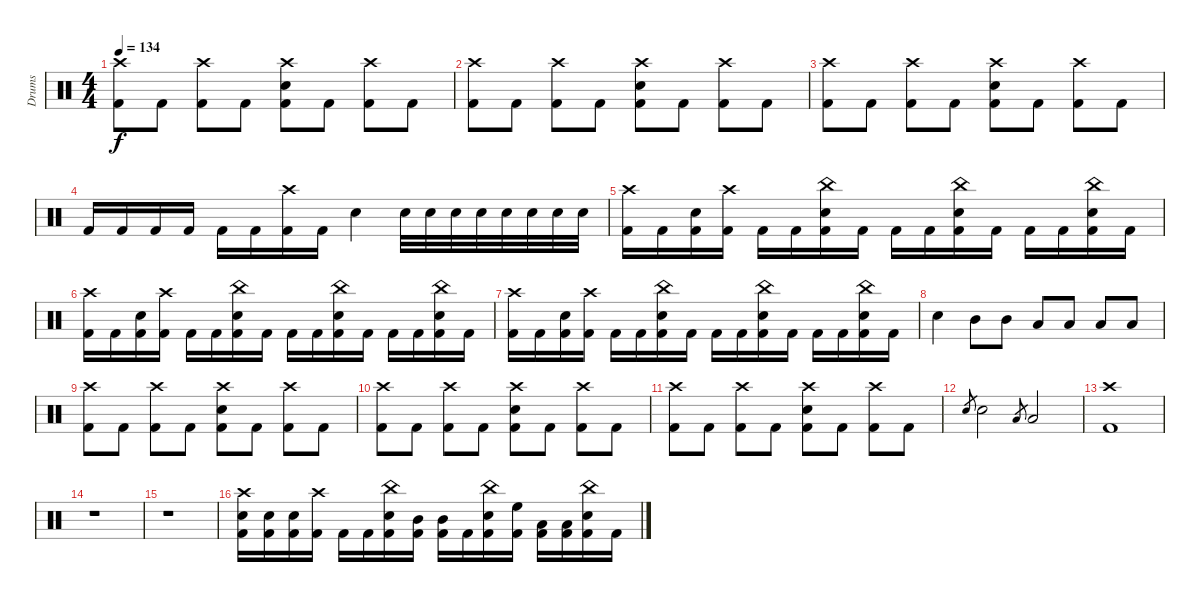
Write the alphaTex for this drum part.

\track ("Drums" "Drums") {instrument percussion}
\staff {score}
\articulation defaults
\ts (4 4)
\tempo 134
\clef neutral
\ks c
("Crash high (hit)" "Kick (hit) 2").8{dy f} "Kick (hit) 2".8 ("Crash high (hit)" "Kick (hit) 2").8 "Kick (hit) 2".8 ("Crash high (hit)" "Electric Snare (hit)" "Kick (hit) 2").8 "Kick (hit) 2".8 ("Crash high (hit)" "Kick (hit) 2").8 "Kick (hit) 2".8 |
("Crash high (hit)" "Kick (hit) 2").8 "Kick (hit) 2".8 ("Crash high (hit)" "Kick (hit) 2").8 "Kick (hit) 2".8 ("Crash high (hit)" "Electric Snare (hit)" "Kick (hit) 2").8 "Kick (hit) 2".8 ("Crash high (hit)" "Kick (hit) 2").8 "Kick (hit) 2".8 |
("Crash high (hit)" "Kick (hit) 2").8 "Kick (hit) 2".8 ("Crash high (hit)" "Kick (hit) 2").8 "Kick (hit) 2".8 ("Crash high (hit)" "Electric Snare (hit)" "Kick (hit) 2").8 "Kick (hit) 2".8 ("Crash high (hit)" "Kick (hit) 2").8 "Kick (hit) 2".8 |
"Kick (hit) 2".16 "Kick (hit) 2".16 "Kick (hit) 2".16 "Kick (hit) 2".16 "Kick (hit) 2".16 "Kick (hit) 2".16 ("Crash high (hit)" "Kick (hit) 2").16 "Kick (hit) 2".16 "Electric Snare (hit)".4 "Electric Snare (hit)".32 "Electric Snare (hit)".32 "Electric Snare (hit)".32 "Electric Snare (hit)".32 "Electric Snare (hit)".32 "Electric Snare (hit)".32 "Electric Snare (hit)".32 "Electric Snare (hit)".32 |
("Crash high (hit)" "Kick (hit) 2").16 "Kick (hit) 2".16 ("Electric Snare (hit)" "Kick (hit) 2").16 ("Crash high (hit)" "Kick (hit) 2").16 "Kick (hit) 2".16 "Kick (hit) 2".16 ("China (hit)" "Electric Snare (hit)" "Kick (hit) 2").16 "Kick (hit) 2".16 "Kick (hit) 2".16 "Kick (hit) 2".16 ("China (hit)" "Electric Snare (hit)" "Kick (hit) 2").16 "Kick (hit) 2".16 "Kick (hit) 2".16 "Kick (hit) 2".16 ("China (hit)" "Electric Snare (hit)" "Kick (hit) 2").16 "Kick (hit) 2".16 |
("Crash high (hit)" "Kick (hit) 2").16 "Kick (hit) 2".16 ("Electric Snare (hit)" "Kick (hit) 2").16 ("Crash high (hit)" "Kick (hit) 2").16 "Kick (hit) 2".16 "Kick (hit) 2".16 ("China (hit)" "Electric Snare (hit)" "Kick (hit) 2").16 "Kick (hit) 2".16 "Kick (hit) 2".16 "Kick (hit) 2".16 ("China (hit)" "Electric Snare (hit)" "Kick (hit) 2").16 "Kick (hit) 2".16 "Kick (hit) 2".16 "Kick (hit) 2".16 ("China (hit)" "Electric Snare (hit)" "Kick (hit) 2").16 "Kick (hit) 2".16 |
("Crash high (hit)" "Kick (hit) 2").16 "Kick (hit) 2".16 ("Electric Snare (hit)" "Kick (hit) 2").16 ("Crash high (hit)" "Kick (hit) 2").16 "Kick (hit) 2".16 "Kick (hit) 2".16 ("China (hit)" "Electric Snare (hit)" "Kick (hit) 2").16 "Kick (hit) 2".16 "Kick (hit) 2".16 "Kick (hit) 2".16 ("China (hit)" "Electric Snare (hit)" "Kick (hit) 2").16 "Kick (hit) 2".16 "Kick (hit) 2".16 "Kick (hit) 2".16 ("China (hit)" "Electric Snare (hit)" "Kick (hit) 2").16 "Kick (hit) 2".16 |
"Electric Snare (hit)".4 "Mid Tom (hit)".8 "Mid Tom (hit)".8 "Low Tom (hit)".8 "Low Tom (hit)".8 "Low Floor Tom (hit)".8 "Low Floor Tom (hit)".8 |
("Crash high (hit)" "Kick (hit) 2").8 "Kick (hit) 2".8 ("Crash high (hit)" "Kick (hit) 2").8 "Kick (hit) 2".8 ("Crash high (hit)" "Electric Snare (hit)" "Kick (hit) 2").8 "Kick (hit) 2".8 ("Crash high (hit)" "Kick (hit) 2").8 "Kick (hit) 2".8 |
("Crash high (hit)" "Kick (hit) 2").8 "Kick (hit) 2".8 ("Crash high (hit)" "Kick (hit) 2").8 "Kick (hit) 2".8 ("Crash high (hit)" "Electric Snare (hit)" "Kick (hit) 2").8 "Kick (hit) 2".8 ("Crash high (hit)" "Kick (hit) 2").8 "Kick (hit) 2".8 |
("Crash high (hit)" "Kick (hit) 2").8 "Kick (hit) 2".8 ("Crash high (hit)" "Kick (hit) 2").8 "Kick (hit) 2".8 ("Crash high (hit)" "Electric Snare (hit)" "Kick (hit) 2").8 "Kick (hit) 2".8 ("Crash high (hit)" "Kick (hit) 2").8 "Kick (hit) 2".8 |
"Electric Snare (hit)".8{gr} "Electric Snare (hit)".2 "Low Tom (hit)".8{gr} "Low Tom (hit)".2 |
("Crash high (hit)" "Kick (hit) 2").1 |
r.1 |
r.1 |
("Crash high (hit)" "Electric Snare (hit)" "Kick (hit) 2").16 ("Electric Snare (hit)" "Kick (hit) 2").16 ("Electric Snare (hit)" "Kick (hit) 2").16 ("Crash high (hit)" "Kick (hit) 2").16 "Kick (hit) 2".16 "Kick (hit) 2".16 ("China (hit)" "Electric Snare (hit)" "Kick (hit) 2").16 ("Mid Tom (hit)" "Kick (hit) 2").16 ("Mid Tom (hit)" "Kick (hit) 2").16 "Kick (hit) 2".16 ("China (hit)" "Electric Snare (hit)" "Kick (hit) 2").16 ("High Floor Tom (hit)" "Kick (hit) 2").16 ("Low Floor Tom (hit)" "Kick (hit) 2").16 ("Low Tom (hit)" "Kick (hit) 2").16 ("China (hit)" "Electric Snare (hit)" "Kick (hit) 2").16 "Kick (hit) 2".16
